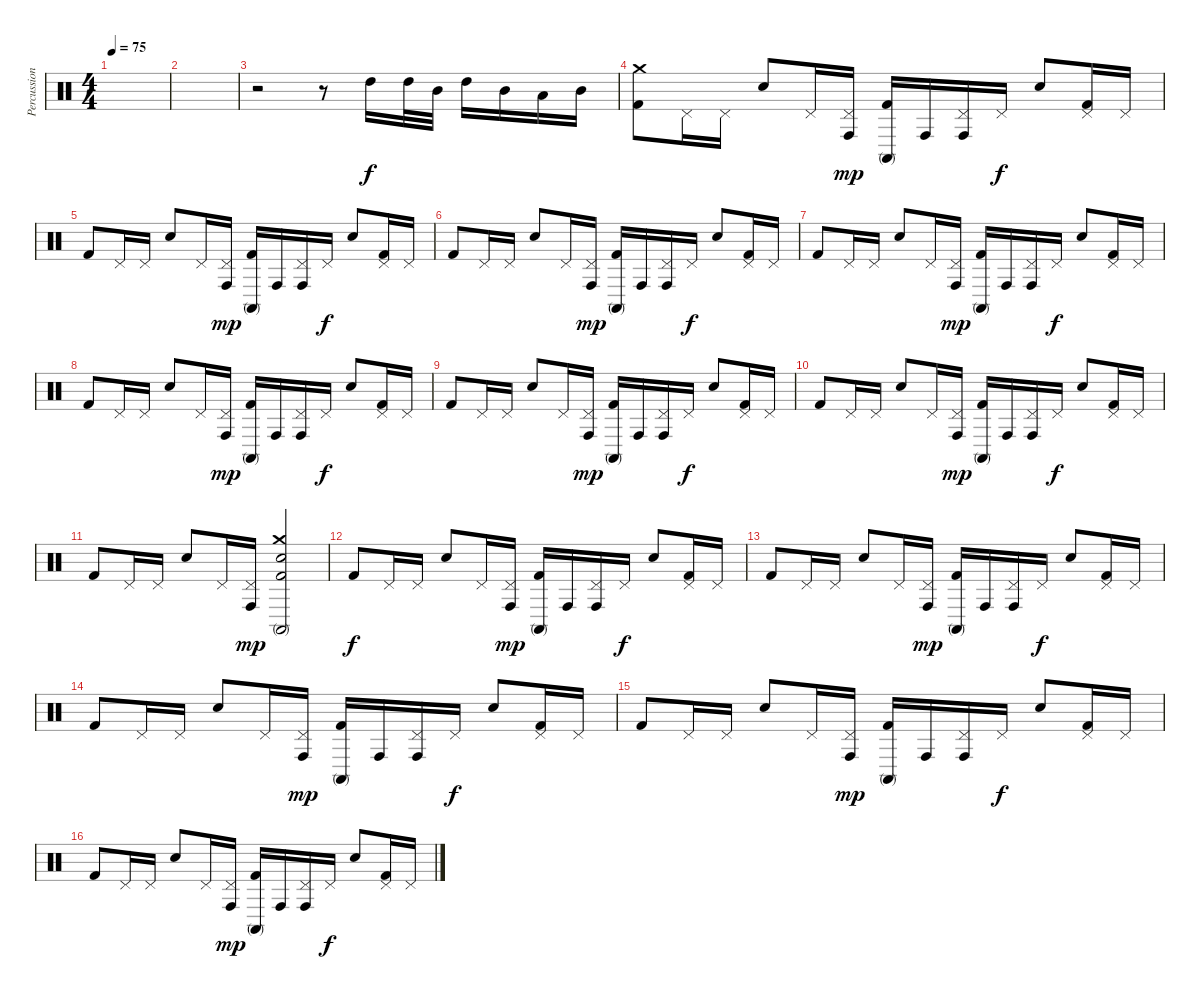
\track ("Percussion" "Percussion") {instrument percussion}
\staff {score}
\articulation defaults
\ts (4 4)
\tempo 75
\clef neutral
\ks c
|
|
r.2 r.8 "High Tom (hit)".16 "High Tom (hit)".32 "Mid Tom (hit)".32 "High Tom (hit)".16 "Mid Tom (hit)".16 "Low Tom (hit)".16 "Mid Tom (hit)".16 |
("Crash medium (hit)" "Kick (hit) 2").8 "Pedal Hi-Hat (hit)".16 "Pedal Hi-Hat (hit)".16 "Snare (hit) 2".8 "Pedal Hi-Hat (hit)".16 ("Pedal Hi-Hat (hit)" "Conga high (hit)").16{dy mp} ("Conga high (mute)" "Kick (hit) 2").16 "Conga high (hit)".16 ("Pedal Hi-Hat (hit)" "Conga high (hit)").16 "Pedal Hi-Hat (hit)".16{dy f} "Snare (hit) 2".8 ("Pedal Hi-Hat (hit)" "Kick (hit) 2").16 "Pedal Hi-Hat (hit)".16 |
"Kick (hit) 2".8 "Pedal Hi-Hat (hit)".16 "Pedal Hi-Hat (hit)".16 "Snare (hit) 2".8 "Pedal Hi-Hat (hit)".16 ("Pedal Hi-Hat (hit)" "Conga high (hit)").16{dy mp} ("Conga high (mute)" "Kick (hit) 2").16 "Conga high (hit)".16 ("Pedal Hi-Hat (hit)" "Conga high (hit)").16 "Pedal Hi-Hat (hit)".16{dy f} "Snare (hit) 2".8 ("Pedal Hi-Hat (hit)" "Kick (hit) 2").16 "Pedal Hi-Hat (hit)".16 |
"Kick (hit) 2".8 "Pedal Hi-Hat (hit)".16 "Pedal Hi-Hat (hit)".16 "Snare (hit) 2".8 "Pedal Hi-Hat (hit)".16 ("Pedal Hi-Hat (hit)" "Conga high (hit)").16{dy mp} ("Conga high (mute)" "Kick (hit) 2").16 "Conga high (hit)".16 ("Pedal Hi-Hat (hit)" "Conga high (hit)").16 "Pedal Hi-Hat (hit)".16{dy f} "Snare (hit) 2".8 ("Pedal Hi-Hat (hit)" "Kick (hit) 2").16 "Pedal Hi-Hat (hit)".16 |
"Kick (hit) 2".8 "Pedal Hi-Hat (hit)".16 "Pedal Hi-Hat (hit)".16 "Snare (hit) 2".8 "Pedal Hi-Hat (hit)".16 ("Pedal Hi-Hat (hit)" "Conga high (hit)").16{dy mp} ("Conga high (mute)" "Kick (hit) 2").16 "Conga high (hit)".16 ("Pedal Hi-Hat (hit)" "Conga high (hit)").16 "Pedal Hi-Hat (hit)".16{dy f} "Snare (hit) 2".8 ("Pedal Hi-Hat (hit)" "Kick (hit) 2").16 "Pedal Hi-Hat (hit)".16 |
"Kick (hit) 2".8 "Pedal Hi-Hat (hit)".16 "Pedal Hi-Hat (hit)".16 "Snare (hit) 2".8 "Pedal Hi-Hat (hit)".16 ("Pedal Hi-Hat (hit)" "Conga high (hit)").16{dy mp} ("Conga high (mute)" "Kick (hit) 2").16 "Conga high (hit)".16 ("Pedal Hi-Hat (hit)" "Conga high (hit)").16 "Pedal Hi-Hat (hit)".16{dy f} "Snare (hit) 2".8 ("Pedal Hi-Hat (hit)" "Kick (hit) 2").16 "Pedal Hi-Hat (hit)".16 |
"Kick (hit) 2".8 "Pedal Hi-Hat (hit)".16 "Pedal Hi-Hat (hit)".16 "Snare (hit) 2".8 "Pedal Hi-Hat (hit)".16 ("Pedal Hi-Hat (hit)" "Conga high (hit)").16{dy mp} ("Conga high (mute)" "Kick (hit) 2").16 "Conga high (hit)".16 ("Pedal Hi-Hat (hit)" "Conga high (hit)").16 "Pedal Hi-Hat (hit)".16{dy f} "Snare (hit) 2".8 ("Pedal Hi-Hat (hit)" "Kick (hit) 2").16 "Pedal Hi-Hat (hit)".16 |
"Kick (hit) 2".8 "Pedal Hi-Hat (hit)".16 "Pedal Hi-Hat (hit)".16 "Snare (hit) 2".8 "Pedal Hi-Hat (hit)".16 ("Pedal Hi-Hat (hit)" "Conga high (hit)").16{dy mp} ("Conga high (mute)" "Kick (hit) 2").16 "Conga high (hit)".16 ("Pedal Hi-Hat (hit)" "Conga high (hit)").16 "Pedal Hi-Hat (hit)".16{dy f} "Snare (hit) 2".8 ("Pedal Hi-Hat (hit)" "Kick (hit) 2").16 "Pedal Hi-Hat (hit)".16 |
"Kick (hit) 2".8 "Pedal Hi-Hat (hit)".16 "Pedal Hi-Hat (hit)".16 "Snare (hit) 2".8 "Pedal Hi-Hat (hit)".16 ("Pedal Hi-Hat (hit)" "Conga high (hit)").16{dy mp} ("Crash medium (hit)" "Snare (hit) 2" "Conga high (mute)" "Kick (hit) 2").2 |
"Kick (hit) 2".8{dy f} "Pedal Hi-Hat (hit)".16 "Pedal Hi-Hat (hit)".16 "Snare (hit) 2".8 "Pedal Hi-Hat (hit)".16 ("Pedal Hi-Hat (hit)" "Conga high (hit)").16{dy mp} ("Conga high (mute)" "Kick (hit) 2").16 "Conga high (hit)".16 ("Pedal Hi-Hat (hit)" "Conga high (hit)").16 "Pedal Hi-Hat (hit)".16{dy f} "Snare (hit) 2".8 ("Pedal Hi-Hat (hit)" "Kick (hit) 2").16 "Pedal Hi-Hat (hit)".16 |
"Kick (hit) 2".8 "Pedal Hi-Hat (hit)".16 "Pedal Hi-Hat (hit)".16 "Snare (hit) 2".8 "Pedal Hi-Hat (hit)".16 ("Pedal Hi-Hat (hit)" "Conga high (hit)").16{dy mp} ("Conga high (mute)" "Kick (hit) 2").16 "Conga high (hit)".16 ("Pedal Hi-Hat (hit)" "Conga high (hit)").16 "Pedal Hi-Hat (hit)".16{dy f} "Snare (hit) 2".8 ("Pedal Hi-Hat (hit)" "Kick (hit) 2").16 "Pedal Hi-Hat (hit)".16 |
"Kick (hit) 2".8 "Pedal Hi-Hat (hit)".16 "Pedal Hi-Hat (hit)".16 "Snare (hit) 2".8 "Pedal Hi-Hat (hit)".16 ("Pedal Hi-Hat (hit)" "Conga high (hit)").16{dy mp} ("Conga high (mute)" "Kick (hit) 2").16 "Conga high (hit)".16 ("Pedal Hi-Hat (hit)" "Conga high (hit)").16 "Pedal Hi-Hat (hit)".16{dy f} "Snare (hit) 2".8 ("Pedal Hi-Hat (hit)" "Kick (hit) 2").16 "Pedal Hi-Hat (hit)".16 |
"Kick (hit) 2".8 "Pedal Hi-Hat (hit)".16 "Pedal Hi-Hat (hit)".16 "Snare (hit) 2".8 "Pedal Hi-Hat (hit)".16 ("Pedal Hi-Hat (hit)" "Conga high (hit)").16{dy mp} ("Conga high (mute)" "Kick (hit) 2").16 "Conga high (hit)".16 ("Pedal Hi-Hat (hit)" "Conga high (hit)").16 "Pedal Hi-Hat (hit)".16{dy f} "Snare (hit) 2".8 ("Pedal Hi-Hat (hit)" "Kick (hit) 2").16 "Pedal Hi-Hat (hit)".16 |
"Kick (hit) 2".8 "Pedal Hi-Hat (hit)".16 "Pedal Hi-Hat (hit)".16 "Snare (hit) 2".8 "Pedal Hi-Hat (hit)".16 ("Pedal Hi-Hat (hit)" "Conga high (hit)").16{dy mp} ("Conga high (mute)" "Kick (hit) 2").16 "Conga high (hit)".16 ("Pedal Hi-Hat (hit)" "Conga high (hit)").16 "Pedal Hi-Hat (hit)".16{dy f} "Snare (hit) 2".8 ("Pedal Hi-Hat (hit)" "Kick (hit) 2").16 "Pedal Hi-Hat (hit)".16
